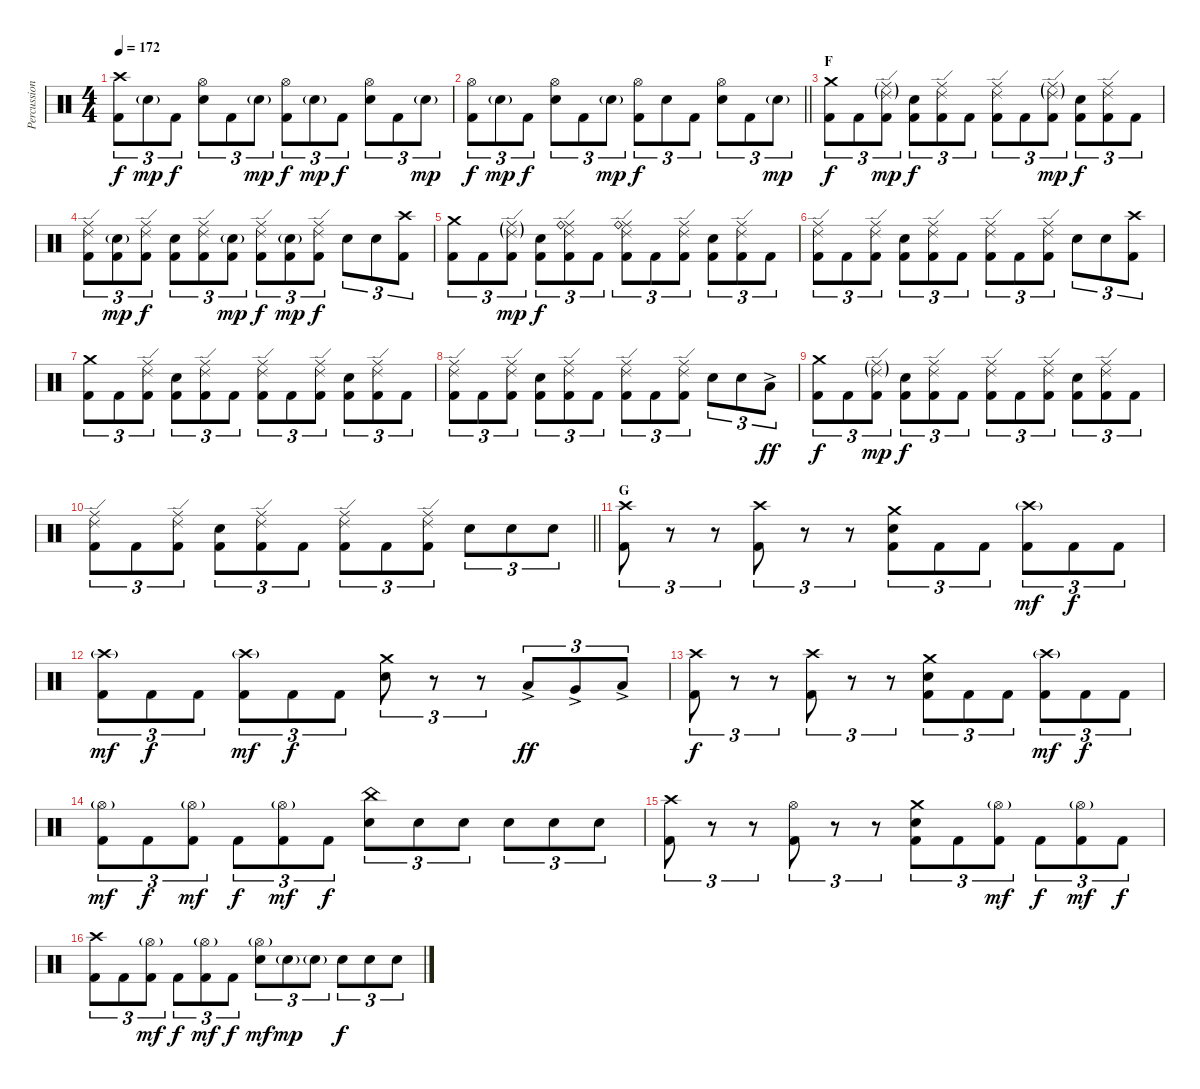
\track ("Percussion" "Percussion") {instrument percussion}
\staff {score}
\articulation defaults
\ts (4 4)
\tempo 172
\clef neutral
\ks c
("Crash high (hit)" "Kick (hit) 2").8{tu (3 2) dy f} "Electric Snare (hit)"{g}.8{tu (3 2) dy mp} "Kick (hit) 2".8{tu (3 2) dy f} ("Hi-Hat (open)" "Electric Snare (hit)").8{tu (3 2)} "Kick (hit) 2".8{tu (3 2)} "Electric Snare (hit)"{g}.8{tu (3 2) dy mp} ("Hi-Hat (open)" "Kick (hit) 2").8{tu (3 2) dy f} "Electric Snare (hit)"{g}.8{tu (3 2) dy mp} "Kick (hit) 2".8{tu (3 2) dy f} ("Hi-Hat (open)" "Electric Snare (hit)").8{tu (3 2)} "Kick (hit) 2".8{tu (3 2)} "Electric Snare (hit)"{g}.8{tu (3 2) dy mp} |
\barLineRight lightlight
("Hi-Hat (open)" "Kick (hit) 2").8{tu (3 2) dy f} "Electric Snare (hit)"{g}.8{tu (3 2) dy mp} "Kick (hit) 2".8{tu (3 2) dy f} ("Hi-Hat (open)" "Electric Snare (hit)").8{tu (3 2)} "Kick (hit) 2".8{tu (3 2)} "Electric Snare (hit)"{g}.8{tu (3 2) dy mp} ("Hi-Hat (open)" "Kick (hit) 2").8{tu (3 2) dy f} "Electric Snare (hit)".8{tu (3 2)} "Kick (hit) 2".8{tu (3 2)} ("Hi-Hat (open)" "Electric Snare (hit)").8{tu (3 2)} "Kick (hit) 2".8{tu (3 2)} "Electric Snare (hit)"{g}.8{tu (3 2) dy mp} |
\section ("" "F")
("Crash medium (hit)" "Kick (hit) 2").8{tu (3 2) dy f} "Kick (hit) 2".8{tu (3 2)} ("Ride (edge) 2"{g} "Ride (middle)"{g} "Kick (hit) 2").8{tu (3 2) dy mp} ("Electric Snare (hit)" "Kick (hit) 2").8{tu (3 2) dy f} ("Ride (edge) 2" "Ride (middle)" "Kick (hit) 2").8{tu (3 2)} "Kick (hit) 2".8{tu (3 2)} ("Ride (edge) 2" "Ride (middle)" "Kick (hit) 2").8{tu (3 2)} "Kick (hit) 2".8{tu (3 2)} ("Ride (edge) 2"{g} "Ride (middle)"{g} "Kick (hit) 2").8{tu (3 2) dy mp} ("Electric Snare (hit)" "Kick (hit) 2").8{tu (3 2) dy f} ("Ride (edge) 2" "Ride (middle)" "Kick (hit) 2").8{tu (3 2)} "Kick (hit) 2".8{tu (3 2)} |
("Ride (edge) 2" "Ride (middle)" "Kick (hit) 2").8{tu (3 2)} ("Electric Snare (hit)"{g} "Kick (hit) 2").8{tu (3 2) dy mp} ("Ride (edge) 2" "Ride (middle)" "Kick (hit) 2").8{tu (3 2) dy f} ("Electric Snare (hit)" "Kick (hit) 2").8{tu (3 2)} ("Ride (edge) 2" "Ride (middle)" "Kick (hit) 2").8{tu (3 2)} ("Electric Snare (hit)"{g} "Kick (hit) 2").8{tu (3 2) dy mp} ("Ride (edge) 2" "Ride (middle)" "Kick (hit) 2").8{tu (3 2) dy f} ("Electric Snare (hit)"{g} "Kick (hit) 2").8{tu (3 2) dy mp} ("Ride (edge) 2" "Ride (middle)" "Kick (hit) 2").8{tu (3 2) dy f} "Electric Snare (hit)".8{tu (3 2)} "Electric Snare (hit)".8{tu (3 2)} ("Crash high (hit)" "Kick (hit) 2").8{tu (3 2)} |
("Crash medium (hit)" "Kick (hit) 2").8{tu (3 2)} "Kick (hit) 2".8{tu (3 2)} ("Ride (edge) 2"{g} "Ride (middle)"{g} "Kick (hit) 2").8{tu (3 2) dy mp} ("Electric Snare (hit)" "Kick (hit) 2").8{tu (3 2) dy f} ("Ride (edge) 2" "Ride (middle)" "Ride (bell)" "Kick (hit) 2").8{tu (3 2)} "Kick (hit) 2".8{tu (3 2)} ("Ride (edge) 2" "Ride (middle)" "Ride (bell)" "Kick (hit) 2").8{tu (3 2)} "Kick (hit) 2".8{tu (3 2)} ("Ride (edge) 2" "Ride (middle)" "Kick (hit) 2").8{tu (3 2)} ("Electric Snare (hit)" "Kick (hit) 2").8{tu (3 2)} ("Ride (edge) 2" "Ride (middle)" "Kick (hit) 2").8{tu (3 2)} "Kick (hit) 2".8{tu (3 2)} |
("Ride (edge) 2" "Ride (middle)" "Kick (hit) 2").8{tu (3 2)} "Kick (hit) 2".8{tu (3 2)} ("Ride (edge) 2" "Ride (middle)" "Kick (hit) 2").8{tu (3 2)} ("Electric Snare (hit)" "Kick (hit) 2").8{tu (3 2)} ("Ride (edge) 2" "Ride (middle)" "Kick (hit) 2").8{tu (3 2)} "Kick (hit) 2".8{tu (3 2)} ("Ride (edge) 2" "Ride (middle)" "Kick (hit) 2").8{tu (3 2)} "Kick (hit) 2".8{tu (3 2)} ("Ride (edge) 2" "Ride (middle)" "Kick (hit) 2").8{tu (3 2)} "Electric Snare (hit)".8{tu (3 2)} "Electric Snare (hit)".8{tu (3 2)} ("Crash high (hit)" "Kick (hit) 2").8{tu (3 2)} |
("Crash medium (hit)" "Kick (hit) 2").8{tu (3 2)} "Kick (hit) 2".8{tu (3 2)} ("Ride (edge) 2" "Ride (middle)" "Kick (hit) 2").8{tu (3 2)} ("Electric Snare (hit)" "Kick (hit) 2").8{tu (3 2)} ("Ride (edge) 2" "Ride (middle)" "Kick (hit) 2").8{tu (3 2)} "Kick (hit) 2".8{tu (3 2)} ("Ride (edge) 2" "Ride (middle)" "Kick (hit) 2").8{tu (3 2)} "Kick (hit) 2".8{tu (3 2)} ("Ride (edge) 2" "Ride (middle)" "Kick (hit) 2").8{tu (3 2)} ("Electric Snare (hit)" "Kick (hit) 2").8{tu (3 2)} ("Ride (edge) 2" "Ride (middle)" "Kick (hit) 2").8{tu (3 2)} "Kick (hit) 2".8{tu (3 2)} |
("Ride (edge) 2" "Ride (middle)" "Kick (hit) 2").8{tu (3 2)} "Kick (hit) 2".8{tu (3 2)} ("Ride (edge) 2" "Ride (middle)" "Kick (hit) 2").8{tu (3 2)} ("Electric Snare (hit)" "Kick (hit) 2").8{tu (3 2)} ("Ride (edge) 2" "Ride (middle)" "Kick (hit) 2").8{tu (3 2)} "Kick (hit) 2".8{tu (3 2)} ("Ride (edge) 2" "Ride (middle)" "Kick (hit) 2").8{tu (3 2)} "Kick (hit) 2".8{tu (3 2)} ("Ride (edge) 2" "Ride (middle)" "Kick (hit) 2").8{tu (3 2)} "Electric Snare (hit)".8{tu (3 2)} "Electric Snare (hit)".8{tu (3 2)} "Low Floor Tom (hit)"{ac}.8{tu (3 2) dy ff} |
("Crash medium (hit)" "Kick (hit) 2").8{tu (3 2) dy f} "Kick (hit) 2".8{tu (3 2)} ("Ride (edge) 2"{g} "Ride (middle)"{g} "Kick (hit) 2").8{tu (3 2) dy mp} ("Electric Snare (hit)" "Kick (hit) 2").8{tu (3 2) dy f} ("Ride (edge) 2" "Ride (middle)" "Kick (hit) 2").8{tu (3 2)} "Kick (hit) 2".8{tu (3 2)} ("Ride (edge) 2" "Ride (middle)" "Kick (hit) 2").8{tu (3 2)} "Kick (hit) 2".8{tu (3 2)} ("Ride (edge) 2" "Ride (middle)" "Kick (hit) 2").8{tu (3 2)} ("Electric Snare (hit)" "Kick (hit) 2").8{tu (3 2)} ("Ride (edge) 2" "Ride (middle)" "Kick (hit) 2").8{tu (3 2)} "Kick (hit) 2".8{tu (3 2)} |
\barLineRight lightlight
("Ride (edge) 2" "Ride (middle)" "Kick (hit) 2").8{tu (3 2)} "Kick (hit) 2".8{tu (3 2)} ("Ride (edge) 2" "Ride (middle)" "Kick (hit) 2").8{tu (3 2)} ("Electric Snare (hit)" "Kick (hit) 2").8{tu (3 2)} ("Ride (edge) 2" "Ride (middle)" "Kick (hit) 2").8{tu (3 2)} "Kick (hit) 2".8{tu (3 2)} ("Ride (edge) 2" "Ride (middle)" "Kick (hit) 2").8{tu (3 2)} "Kick (hit) 2".8{tu (3 2)} ("Ride (edge) 2" "Ride (middle)" "Kick (hit) 2").8{tu (3 2)} "Electric Snare (hit)".8{tu (3 2)} "Electric Snare (hit)".8{tu (3 2)} "Electric Snare (hit)".8{tu (3 2)} |
\section ("" "G")
("Crash high (hit)" "Kick (hit) 2").8{tu (3 2)} r.8{tu (3 2)} r.8{tu (3 2)} ("Crash high (hit)" "Kick (hit) 2").8{tu (3 2)} r.8{tu (3 2)} r.8{tu (3 2)} ("Crash medium (hit)" "Electric Snare (hit)" "Kick (hit) 2").8{tu (3 2)} "Kick (hit) 2".8{tu (3 2)} "Kick (hit) 2".8{tu (3 2)} ("Crash high (hit)"{g} "Kick (hit) 2").8{tu (3 2) dy mf} "Kick (hit) 2".8{tu (3 2) dy f} "Kick (hit) 2".8{tu (3 2)} |
("Crash high (hit)"{g} "Kick (hit) 2").8{tu (3 2) dy mf} "Kick (hit) 2".8{tu (3 2) dy f} "Kick (hit) 2".8{tu (3 2)} ("Crash high (hit)"{g} "Kick (hit) 2").8{tu (3 2) dy mf} "Kick (hit) 2".8{tu (3 2) dy f} "Kick (hit) 2".8{tu (3 2)} ("Crash medium (hit)" "Electric Snare (hit)").8{tu (3 2)} r.8{tu (3 2)} r.8{tu (3 2)} "Low Tom (hit)"{ac}.8{tu (3 2) dy ff} "Very Low Tom (hit)"{ac}.8{tu (3 2)} "Low Floor Tom (hit)"{ac}.8{tu (3 2)} |
("Crash high (hit)" "Kick (hit) 2").8{tu (3 2) dy f} r.8{tu (3 2)} r.8{tu (3 2)} ("Crash high (hit)" "Kick (hit) 2").8{tu (3 2)} r.8{tu (3 2)} r.8{tu (3 2)} ("Crash medium (hit)" "Electric Snare (hit)" "Kick (hit) 2").8{tu (3 2)} "Kick (hit) 2".8{tu (3 2)} "Kick (hit) 2".8{tu (3 2)} ("Crash high (hit)"{g} "Kick (hit) 2").8{tu (3 2) dy mf} "Kick (hit) 2".8{tu (3 2) dy f} "Kick (hit) 2".8{tu (3 2)} |
("Hi-Hat (open)"{g} "Kick (hit) 2").8{tu (3 2) dy mf} "Kick (hit) 2".8{tu (3 2) dy f} ("Hi-Hat (open)"{g} "Kick (hit) 2").8{tu (3 2) dy mf} "Kick (hit) 2".8{tu (3 2) dy f} ("Hi-Hat (open)"{g} "Kick (hit) 2").8{tu (3 2) dy mf} "Kick (hit) 2".8{tu (3 2) dy f} ("China (hit)" "Electric Snare (hit)").8{tu (3 2)} "Electric Snare (hit)".8{tu (3 2)} "Electric Snare (hit)".8{tu (3 2)} "Electric Snare (hit)".8{tu (3 2)} "Electric Snare (hit)".8{tu (3 2)} "Electric Snare (hit)".8{tu (3 2)} |
("Crash high (hit)" "Kick (hit) 2").8{tu (3 2)} r.8{tu (3 2)} r.8{tu (3 2)} ("Hi-Hat (open)" "Kick (hit) 2").8{tu (3 2)} r.8{tu (3 2)} r.8{tu (3 2)} ("Crash medium (hit)" "Electric Snare (hit)" "Kick (hit) 2").8{tu (3 2)} "Kick (hit) 2".8{tu (3 2)} ("Hi-Hat (open)"{g} "Kick (hit) 2").8{tu (3 2) dy mf} "Kick (hit) 2".8{tu (3 2) dy f} ("Hi-Hat (open)"{g} "Kick (hit) 2").8{tu (3 2) dy mf} "Kick (hit) 2".8{tu (3 2) dy f} |
("Crash high (hit)" "Kick (hit) 2").8{tu (3 2)} "Kick (hit) 2".8{tu (3 2)} ("Hi-Hat (open)"{g} "Kick (hit) 2").8{tu (3 2) dy mf} "Kick (hit) 2".8{tu (3 2) dy f} ("Hi-Hat (open)"{g} "Kick (hit) 2").8{tu (3 2) dy mf} "Kick (hit) 2".8{tu (3 2) dy f} ("Hi-Hat (open)"{g} "Electric Snare (hit)").8{tu (3 2) dy mf} "Electric Snare (hit)"{g}.8{tu (3 2) dy mp} "Electric Snare (hit)"{g}.8{tu (3 2)} "Electric Snare (hit)".8{tu (3 2) dy f} "Electric Snare (hit)".8{tu (3 2)} "Electric Snare (hit)".8{tu (3 2)}
